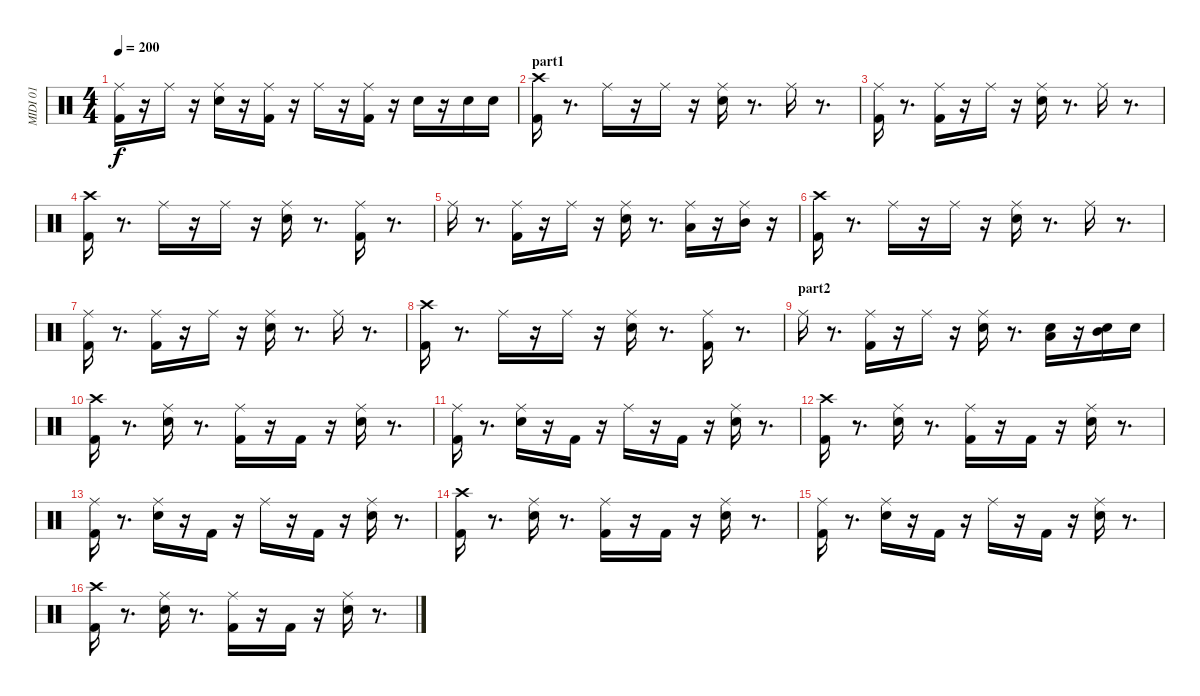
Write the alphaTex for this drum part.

\track ("MIDI 01" "MIDI 01") {instrument percussion}
\staff {score}
\articulation defaults
\ts (4 4)
\tempo 200
\clef neutral
\ks c
("Kick (hit) 2" "Ride (middle)").16{dy f} r.16 "Ride (middle)".16 r.16 ("Snare (hit) 2" "Ride (middle)").16 r.16 ("Kick (hit) 2" "Ride (middle)").16 r.16 "Ride (middle)".16 r.16 ("Kick (hit) 2" "Ride (middle)").16 r.16 "Snare (hit) 2".16 r.16 "Snare (hit) 2".16 "Snare (hit) 2".16 |
\section ("" "part1")
("Kick (hit) 2" "Crash high (hit)").16 r.8{d} "Ride (middle)".16 r.16 "Ride (middle)".16 r.16 ("Ride (middle)" "Snare (hit) 2").16 r.8{d} "Ride (middle)".16 r.8{d} |
("Kick (hit) 2" "Ride (middle)").16 r.8{d} ("Ride (middle)" "Kick (hit) 2").16 r.16 "Ride (middle)".16 r.16 ("Snare (hit) 2" "Ride (middle)").16 r.8{d} "Ride (middle)".16 r.8{d} |
("Kick (hit) 2" "Crash high (hit)").16 r.8{d} "Ride (middle)".16 r.16 "Ride (middle)".16 r.16 ("Ride (middle)" "Snare (hit) 2").16 r.8{d} ("Ride (middle)" "Kick (hit) 2").16 r.8{d} |
"Ride (middle)".16 r.8{d} ("Ride (middle)" "Kick (hit) 2").16 r.16 "Ride (middle)".16 r.16 ("Ride (middle)" "Snare (hit) 2").16 r.8{d} ("Ride (middle)" "Low Tom (hit)").16 r.16 ("Ride (middle)" "Mid Tom (hit)").16 r.16 |
("Kick (hit) 2" "Crash high (hit)").16 r.8{d} "Ride (middle)".16 r.16 "Ride (middle)".16 r.16 ("Ride (middle)" "Snare (hit) 2").16 r.8{d} "Ride (middle)".16 r.8{d} |
("Kick (hit) 2" "Ride (middle)").16 r.8{d} ("Ride (middle)" "Kick (hit) 2").16 r.16 "Ride (middle)".16 r.16 ("Snare (hit) 2" "Ride (middle)").16 r.8{d} "Ride (middle)".16 r.8{d} |
("Kick (hit) 2" "Crash high (hit)").16 r.8{d} "Ride (middle)".16 r.16 "Ride (middle)".16 r.16 ("Ride (middle)" "Snare (hit) 2").16 r.8{d} ("Ride (middle)" "Kick (hit) 2").16 r.8{d} |
\section ("" "part2")
"Ride (middle)".16 r.8{d} ("Ride (middle)" "Kick (hit) 2").16 r.16 "Ride (middle)".16 r.16 ("Ride (middle)" "Snare (hit) 2").16 r.8{d} ("Low Tom (hit)" "Snare (hit) 2").16 r.16 ("Mid Tom (hit)" "Snare (hit) 2").16 "Snare (hit) 2".16 |
("Kick (hit) 2" "Crash high (hit)").16 r.8{d} ("Snare (hit) 2" "Ride (middle)").16 r.8{d} ("Kick (hit) 2" "Ride (middle)").16 r.16 "Kick (hit) 2".16 r.16 ("Snare (hit) 2" "Ride (middle)").16 r.8{d} |
("Kick (hit) 2" "Ride (middle)").16 r.8{d} ("Snare (hit) 2" "Ride (middle)").16 r.16 "Kick (hit) 2".16 r.16 "Ride (middle)".16 r.16 "Kick (hit) 2".16 r.16 ("Snare (hit) 2" "Ride (middle)").16 r.8{d} |
("Kick (hit) 2" "Crash high (hit)").16 r.8{d} ("Snare (hit) 2" "Ride (middle)").16 r.8{d} ("Kick (hit) 2" "Ride (middle)").16 r.16 "Kick (hit) 2".16 r.16 ("Snare (hit) 2" "Ride (middle)").16 r.8{d} |
("Kick (hit) 2" "Ride (middle)").16 r.8{d} ("Snare (hit) 2" "Ride (middle)").16 r.16 "Kick (hit) 2".16 r.16 "Ride (middle)".16 r.16 "Kick (hit) 2".16 r.16 ("Snare (hit) 2" "Ride (middle)").16 r.8{d} |
("Kick (hit) 2" "Crash high (hit)").16 r.8{d} ("Snare (hit) 2" "Ride (middle)").16 r.8{d} ("Kick (hit) 2" "Ride (middle)").16 r.16 "Kick (hit) 2".16 r.16 ("Snare (hit) 2" "Ride (middle)").16 r.8{d} |
("Kick (hit) 2" "Ride (middle)").16 r.8{d} ("Snare (hit) 2" "Ride (middle)").16 r.16 "Kick (hit) 2".16 r.16 "Ride (middle)".16 r.16 "Kick (hit) 2".16 r.16 ("Snare (hit) 2" "Ride (middle)").16 r.8{d} |
("Kick (hit) 2" "Crash high (hit)").16 r.8{d} ("Snare (hit) 2" "Ride (middle)").16 r.8{d} ("Kick (hit) 2" "Ride (middle)").16 r.16 "Kick (hit) 2".16 r.16 ("Snare (hit) 2" "Ride (middle)").16 r.8{d}
